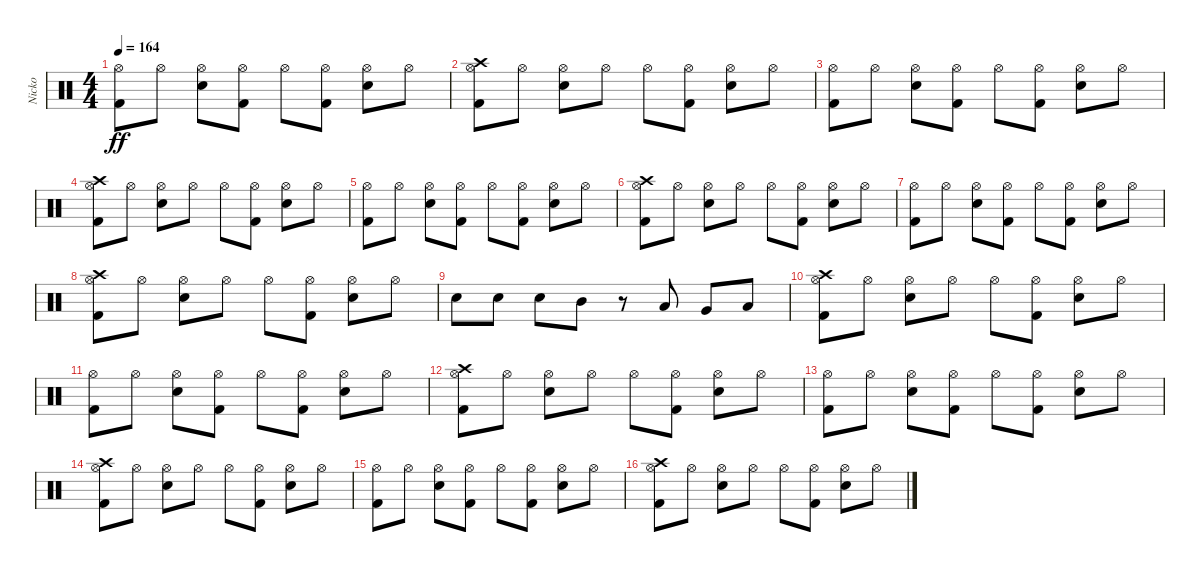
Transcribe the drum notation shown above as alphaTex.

\track ("Nicko" "Nicko") {instrument percussion}
\staff {score}
\articulation defaults
\ts (4 4)
\tempo 164
\clef neutral
\ks c
("Kick (hit) 2" "Hi-Hat (open)").8{dy ff} "Hi-Hat (open)".8 ("Snare (hit) 2" "Hi-Hat (open)").8 ("Kick (hit) 2" "Hi-Hat (open)").8 "Hi-Hat (open)".8 ("Kick (hit) 2" "Hi-Hat (open)").8 ("Snare (hit) 2" "Hi-Hat (open)").8 "Hi-Hat (open)".8 |
("Kick (hit) 2" "Hi-Hat (open)" "Crash high (hit)").8 "Hi-Hat (open)".8 ("Snare (hit) 2" "Hi-Hat (open)").8 "Hi-Hat (open)".8 "Hi-Hat (open)".8 ("Kick (hit) 2" "Hi-Hat (open)").8 ("Snare (hit) 2" "Hi-Hat (open)").8 "Hi-Hat (open)".8 |
("Kick (hit) 2" "Hi-Hat (open)").8 "Hi-Hat (open)".8 ("Snare (hit) 2" "Hi-Hat (open)").8 ("Kick (hit) 2" "Hi-Hat (open)").8 "Hi-Hat (open)".8 ("Kick (hit) 2" "Hi-Hat (open)").8 ("Snare (hit) 2" "Hi-Hat (open)").8 "Hi-Hat (open)".8 |
("Kick (hit) 2" "Hi-Hat (open)" "Crash high (hit)").8 "Hi-Hat (open)".8 ("Snare (hit) 2" "Hi-Hat (open)").8 "Hi-Hat (open)".8 "Hi-Hat (open)".8 ("Kick (hit) 2" "Hi-Hat (open)").8 ("Snare (hit) 2" "Hi-Hat (open)").8 "Hi-Hat (open)".8 |
("Kick (hit) 2" "Hi-Hat (open)").8 "Hi-Hat (open)".8 ("Snare (hit) 2" "Hi-Hat (open)").8 ("Kick (hit) 2" "Hi-Hat (open)").8 "Hi-Hat (open)".8 ("Kick (hit) 2" "Hi-Hat (open)").8 ("Snare (hit) 2" "Hi-Hat (open)").8 "Hi-Hat (open)".8 |
("Kick (hit) 2" "Hi-Hat (open)" "Crash high (hit)").8 "Hi-Hat (open)".8 ("Snare (hit) 2" "Hi-Hat (open)").8 "Hi-Hat (open)".8 "Hi-Hat (open)".8 ("Kick (hit) 2" "Hi-Hat (open)").8 ("Snare (hit) 2" "Hi-Hat (open)").8 "Hi-Hat (open)".8 |
("Kick (hit) 2" "Hi-Hat (open)").8 "Hi-Hat (open)".8 ("Snare (hit) 2" "Hi-Hat (open)").8 ("Kick (hit) 2" "Hi-Hat (open)").8 "Hi-Hat (open)".8 ("Kick (hit) 2" "Hi-Hat (open)").8 ("Snare (hit) 2" "Hi-Hat (open)").8 "Hi-Hat (open)".8 |
("Kick (hit) 2" "Hi-Hat (open)" "Crash high (hit)").8 "Hi-Hat (open)".8 ("Snare (hit) 2" "Hi-Hat (open)").8 "Hi-Hat (open)".8 "Hi-Hat (open)".8 ("Kick (hit) 2" "Hi-Hat (open)").8 ("Snare (hit) 2" "Hi-Hat (open)").8 "Hi-Hat (open)".8 |
"Snare (hit) 2".8 "Snare (hit) 2".8 "Snare (hit) 2".8 "Mid Tom (hit)".8 r.8 "Low Tom (hit)".8 "Very Low Tom (hit)".8 "Low Floor Tom (hit)".8 |
("Kick (hit) 2" "Hi-Hat (open)" "Crash high (hit)").8 "Hi-Hat (open)".8 ("Snare (hit) 2" "Hi-Hat (open)").8 "Hi-Hat (open)".8 "Hi-Hat (open)".8 ("Kick (hit) 2" "Hi-Hat (open)").8 ("Snare (hit) 2" "Hi-Hat (open)").8 "Hi-Hat (open)".8 |
("Kick (hit) 2" "Hi-Hat (open)").8 "Hi-Hat (open)".8 ("Snare (hit) 2" "Hi-Hat (open)").8 ("Kick (hit) 2" "Hi-Hat (open)").8 "Hi-Hat (open)".8 ("Kick (hit) 2" "Hi-Hat (open)").8 ("Snare (hit) 2" "Hi-Hat (open)").8 "Hi-Hat (open)".8 |
("Kick (hit) 2" "Hi-Hat (open)" "Crash high (hit)").8 "Hi-Hat (open)".8 ("Snare (hit) 2" "Hi-Hat (open)").8 "Hi-Hat (open)".8 "Hi-Hat (open)".8 ("Kick (hit) 2" "Hi-Hat (open)").8 ("Snare (hit) 2" "Hi-Hat (open)").8 "Hi-Hat (open)".8 |
("Kick (hit) 2" "Hi-Hat (open)").8 "Hi-Hat (open)".8 ("Snare (hit) 2" "Hi-Hat (open)").8 ("Kick (hit) 2" "Hi-Hat (open)").8 "Hi-Hat (open)".8 ("Kick (hit) 2" "Hi-Hat (open)").8 ("Snare (hit) 2" "Hi-Hat (open)").8 "Hi-Hat (open)".8 |
("Kick (hit) 2" "Hi-Hat (open)" "Crash high (hit)").8 "Hi-Hat (open)".8 ("Snare (hit) 2" "Hi-Hat (open)").8 "Hi-Hat (open)".8 "Hi-Hat (open)".8 ("Kick (hit) 2" "Hi-Hat (open)").8 ("Snare (hit) 2" "Hi-Hat (open)").8 "Hi-Hat (open)".8 |
("Kick (hit) 2" "Hi-Hat (open)").8 "Hi-Hat (open)".8 ("Snare (hit) 2" "Hi-Hat (open)").8 ("Kick (hit) 2" "Hi-Hat (open)").8 "Hi-Hat (open)".8 ("Kick (hit) 2" "Hi-Hat (open)").8 ("Snare (hit) 2" "Hi-Hat (open)").8 "Hi-Hat (open)".8 |
("Kick (hit) 2" "Hi-Hat (open)" "Crash high (hit)").8 "Hi-Hat (open)".8 ("Snare (hit) 2" "Hi-Hat (open)").8 "Hi-Hat (open)".8 "Hi-Hat (open)".8 ("Kick (hit) 2" "Hi-Hat (open)").8 ("Snare (hit) 2" "Hi-Hat (open)").8 "Hi-Hat (open)".8
